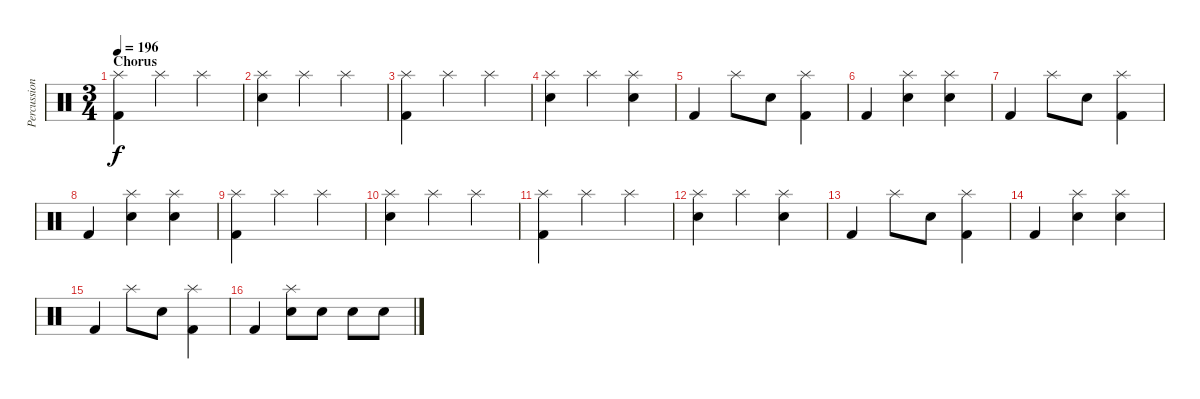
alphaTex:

\track ("Percussion" "Percussion") {instrument percussion}
\staff {score}
\articulation defaults
\ts (3 4)
\section ("" "Chorus")
\tempo 196
\clef neutral
\ks c
("Splash (hit)" "Kick (hit) 2").4{dy f} "Splash (hit)".4 "Splash (hit)".4 |
("Splash (hit)" "Electric Snare (hit)").4 "Splash (hit)".4 "Splash (hit)".4 |
("Splash (hit)" "Kick (hit) 2").4 "Splash (hit)".4 "Splash (hit)".4 |
("Splash (hit)" "Electric Snare (hit)").4 "Splash (hit)".4 ("Splash (hit)" "Electric Snare (hit)").4 |
"Kick (hit) 2".4 "Splash (hit)".8 "Electric Snare (hit)".8 ("Splash (hit)" "Kick (hit) 2").4 |
"Kick (hit) 2".4 ("Splash (hit)" "Electric Snare (hit)").4 ("Splash (hit)" "Electric Snare (hit)").4 |
"Kick (hit) 2".4 "Splash (hit)".8 "Electric Snare (hit)".8 ("Splash (hit)" "Kick (hit) 2").4 |
"Kick (hit) 2".4 ("Splash (hit)" "Electric Snare (hit)").4 ("Splash (hit)" "Electric Snare (hit)").4 |
("Splash (hit)" "Kick (hit) 2").4 "Splash (hit)".4 "Splash (hit)".4 |
("Splash (hit)" "Electric Snare (hit)").4 "Splash (hit)".4 "Splash (hit)".4 |
("Splash (hit)" "Kick (hit) 2").4 "Splash (hit)".4 "Splash (hit)".4 |
("Splash (hit)" "Electric Snare (hit)").4 "Splash (hit)".4 ("Splash (hit)" "Electric Snare (hit)").4 |
"Kick (hit) 2".4 "Splash (hit)".8 "Electric Snare (hit)".8 ("Splash (hit)" "Kick (hit) 2").4 |
"Kick (hit) 2".4 ("Splash (hit)" "Electric Snare (hit)").4 ("Splash (hit)" "Electric Snare (hit)").4 |
"Kick (hit) 2".4 "Splash (hit)".8 "Electric Snare (hit)".8 ("Splash (hit)" "Kick (hit) 2").4 |
"Kick (hit) 2".4 ("Splash (hit)" "Electric Snare (hit)").8 "Electric Snare (hit)".8 "Electric Snare (hit)".8 "Electric Snare (hit)".8
